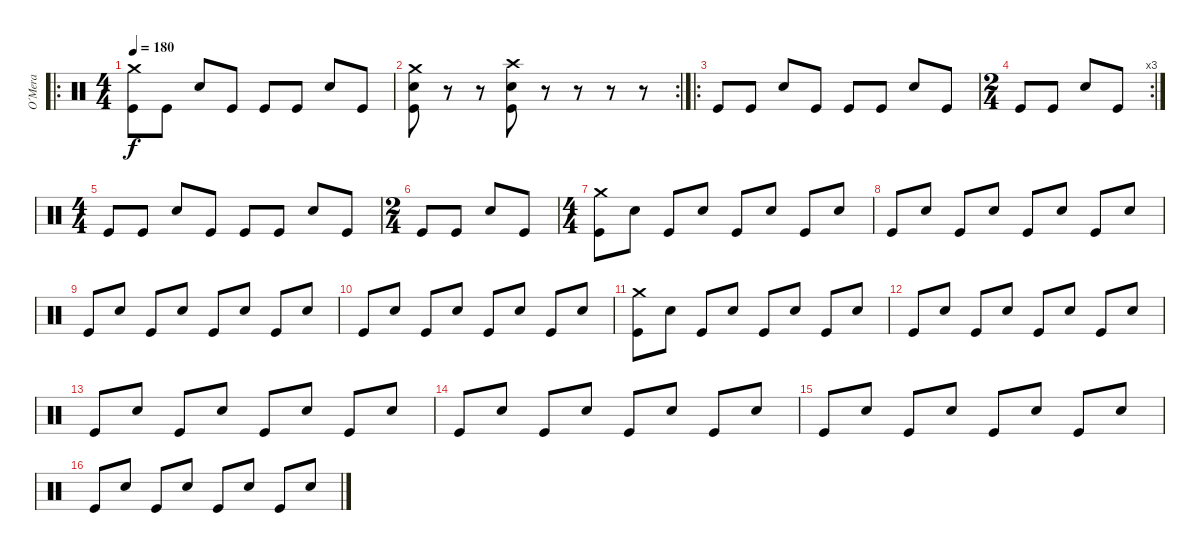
\track ("O´Mera" "O´Mera") {instrument percussion}
\staff {score}
\articulation defaults
\ro
\ts (4 4)
\tempo 180
\clef neutral
\ks c
("Crash medium (hit)" "Kick (hit)").8{dy f} "Kick (hit)".8 "Electric Snare (hit)".8 "Kick (hit)".8 "Kick (hit)".8 "Kick (hit)".8 "Electric Snare (hit)".8 "Kick (hit)".8 |
\rc 2
("Crash medium (hit)" "Electric Snare (hit)" "Kick (hit)").8 r.8 r.8 ("Crash high (hit)" "Electric Snare (hit)" "Kick (hit)").8 r.8 r.8 r.8 r.8 |
\ro "Kick (hit)".8 "Kick (hit)".8 "Electric Snare (hit)".8 "Kick (hit)".8 "Kick (hit)".8 "Kick (hit)".8 "Electric Snare (hit)".8 "Kick (hit)".8
|
\rc 3
\ts (2 4)
"Kick (hit)".8 "Kick (hit)".8 "Electric Snare (hit)".8 "Kick (hit)".8 |
\ts (4 4)
"Kick (hit)".8 "Kick (hit)".8 "Electric Snare (hit)".8 "Kick (hit)".8 "Kick (hit)".8 "Kick (hit)".8 "Electric Snare (hit)".8 "Kick (hit)".8 |
\ts (2 4)
"Kick (hit)".8 "Kick (hit)".8 "Electric Snare (hit)".8 "Kick (hit)".8 |
\ts (4 4)
("Crash medium (hit)" "Kick (hit)").8 "Electric Snare (hit)".8 "Kick (hit)".8 "Electric Snare (hit)".8 "Kick (hit)".8 "Electric Snare (hit)".8 "Kick (hit)".8 "Electric Snare (hit)".8 |
"Kick (hit)".8 "Electric Snare (hit)".8 "Kick (hit)".8 "Electric Snare (hit)".8 "Kick (hit)".8 "Electric Snare (hit)".8 "Kick (hit)".8 "Electric Snare (hit)".8 |
"Kick (hit)".8 "Electric Snare (hit)".8 "Kick (hit)".8 "Electric Snare (hit)".8 "Kick (hit)".8 "Electric Snare (hit)".8 "Kick (hit)".8 "Electric Snare (hit)".8 |
"Kick (hit)".8 "Electric Snare (hit)".8 "Kick (hit)".8 "Electric Snare (hit)".8 "Kick (hit)".8 "Electric Snare (hit)".8 "Kick (hit)".8 "Electric Snare (hit)".8 |
("Crash medium (hit)" "Kick (hit)").8 "Electric Snare (hit)".8 "Kick (hit)".8 "Electric Snare (hit)".8 "Kick (hit)".8 "Electric Snare (hit)".8 "Kick (hit)".8 "Electric Snare (hit)".8 |
"Kick (hit)".8 "Electric Snare (hit)".8 "Kick (hit)".8 "Electric Snare (hit)".8 "Kick (hit)".8 "Electric Snare (hit)".8 "Kick (hit)".8 "Electric Snare (hit)".8 |
"Kick (hit)".8 "Electric Snare (hit)".8 "Kick (hit)".8 "Electric Snare (hit)".8 "Kick (hit)".8 "Electric Snare (hit)".8 "Kick (hit)".8 "Electric Snare (hit)".8 |
"Kick (hit)".8 "Electric Snare (hit)".8 "Kick (hit)".8 "Electric Snare (hit)".8 "Kick (hit)".8 "Electric Snare (hit)".8 "Kick (hit)".8 "Electric Snare (hit)".8 |
"Kick (hit)".8 "Electric Snare (hit)".8 "Kick (hit)".8 "Electric Snare (hit)".8 "Kick (hit)".8 "Electric Snare (hit)".8 "Kick (hit)".8 "Electric Snare (hit)".8 |
"Kick (hit)".8 "Electric Snare (hit)".8 "Kick (hit)".8 "Electric Snare (hit)".8 "Kick (hit)".8 "Electric Snare (hit)".8 "Kick (hit)".8 "Electric Snare (hit)".8
